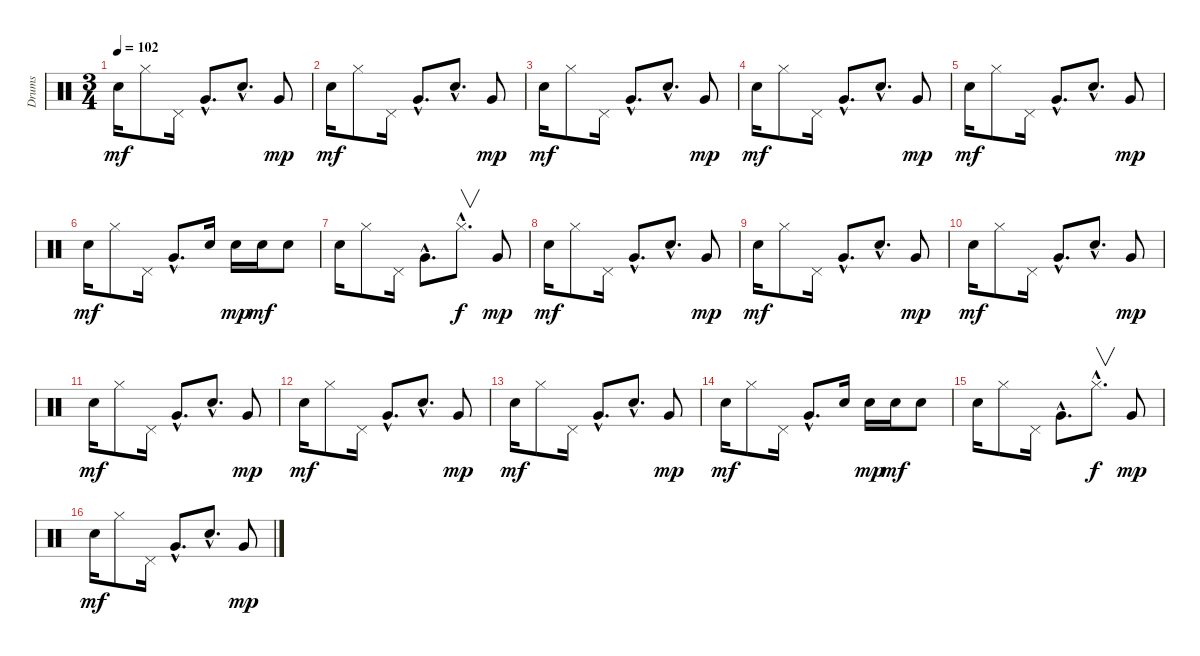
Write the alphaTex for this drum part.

\track ("Drums" "Drums") {instrument percussion}
\staff {score}
\articulation defaults
\ts (3 4)
\tempo 102
\clef neutral
\ks c "Electric Snare (hit)".16{dy mf} "Hi-Hat (closed)".8 "Pedal Hi-Hat (hit)".16 "Very Low Tom (hit)"{hac}.8{d} "Electric Snare (hit)"{hac}.8{d} "Very Low Tom (hit)".8{dy mp}
|
"Electric Snare (hit)".16{dy mf} "Hi-Hat (closed)".8 "Pedal Hi-Hat (hit)".16 "Very Low Tom (hit)"{hac}.8{d} "Electric Snare (hit)"{hac}.8{d} "Very Low Tom (hit)".8{dy mp} |
"Electric Snare (hit)".16{dy mf} "Hi-Hat (closed)".8 "Pedal Hi-Hat (hit)".16 "Very Low Tom (hit)"{hac}.8{d} "Electric Snare (hit)"{hac}.8{d} "Very Low Tom (hit)".8{dy mp} |
"Electric Snare (hit)".16{dy mf} "Hi-Hat (closed)".8 "Pedal Hi-Hat (hit)".16 "Very Low Tom (hit)"{hac}.8{d} "Electric Snare (hit)"{hac}.8{d} "Very Low Tom (hit)".8{dy mp} |
"Electric Snare (hit)".16{dy mf} "Hi-Hat (closed)".8 "Pedal Hi-Hat (hit)".16 "Very Low Tom (hit)"{hac}.8{d} "Electric Snare (hit)"{hac}.8{d} "Very Low Tom (hit)".8{dy mp} |
"Electric Snare (hit)".16{dy mf} "Hi-Hat (closed)".8 "Pedal Hi-Hat (hit)".16 "Very Low Tom (hit)"{hac}.8{d} "Electric Snare (hit)".16 "Electric Snare (hit)".16{dy mp} "Electric Snare (hit)".16{dy mf} "Electric Snare (hit)".8 |
"Electric Snare (hit)".16{volume 12} "Hi-Hat (closed)".8 "Pedal Hi-Hat (hit)".16 "Very Low Tom (hit)"{hac}.8{d} "Hi-Hat (closed)"{hac}.8{v d dy f} "Very Low Tom (hit)".8{dy mp} |
"Electric Snare (hit)".16{dy mf} "Hi-Hat (closed)".8 "Pedal Hi-Hat (hit)".16 "Very Low Tom (hit)"{hac}.8{d} "Electric Snare (hit)"{hac}.8{d} "Very Low Tom (hit)".8{dy mp} |
"Electric Snare (hit)".16{dy mf} "Hi-Hat (closed)".8 "Pedal Hi-Hat (hit)".16 "Very Low Tom (hit)"{hac}.8{d} "Electric Snare (hit)"{hac}.8{d} "Very Low Tom (hit)".8{dy mp} |
"Electric Snare (hit)".16{dy mf} "Hi-Hat (closed)".8 "Pedal Hi-Hat (hit)".16 "Very Low Tom (hit)"{hac}.8{d} "Electric Snare (hit)"{hac}.8{d} "Very Low Tom (hit)".8{dy mp} |
"Electric Snare (hit)".16{dy mf} "Hi-Hat (closed)".8 "Pedal Hi-Hat (hit)".16 "Very Low Tom (hit)"{hac}.8{d} "Electric Snare (hit)"{hac}.8{d} "Very Low Tom (hit)".8{dy mp} |
"Electric Snare (hit)".16{dy mf} "Hi-Hat (closed)".8 "Pedal Hi-Hat (hit)".16 "Very Low Tom (hit)"{hac}.8{d} "Electric Snare (hit)"{hac}.8{d} "Very Low Tom (hit)".8{dy mp} |
"Electric Snare (hit)".16{dy mf} "Hi-Hat (closed)".8 "Pedal Hi-Hat (hit)".16 "Very Low Tom (hit)"{hac}.8{d} "Electric Snare (hit)"{hac}.8{d} "Very Low Tom (hit)".8{dy mp} |
"Electric Snare (hit)".16{dy mf} "Hi-Hat (closed)".8 "Pedal Hi-Hat (hit)".16 "Very Low Tom (hit)"{hac}.8{d} "Electric Snare (hit)".16 "Electric Snare (hit)".16{dy mp} "Electric Snare (hit)".16{dy mf} "Electric Snare (hit)".8 |
"Electric Snare (hit)".16{volume 12} "Hi-Hat (closed)".8 "Pedal Hi-Hat (hit)".16 "Very Low Tom (hit)"{hac}.8{d} "Hi-Hat (closed)"{hac}.8{v d dy f} "Very Low Tom (hit)".8{dy mp} |
"Electric Snare (hit)".16{dy mf} "Hi-Hat (closed)".8 "Pedal Hi-Hat (hit)".16 "Very Low Tom (hit)"{hac}.8{d} "Electric Snare (hit)"{hac}.8{d} "Very Low Tom (hit)".8{dy mp}
